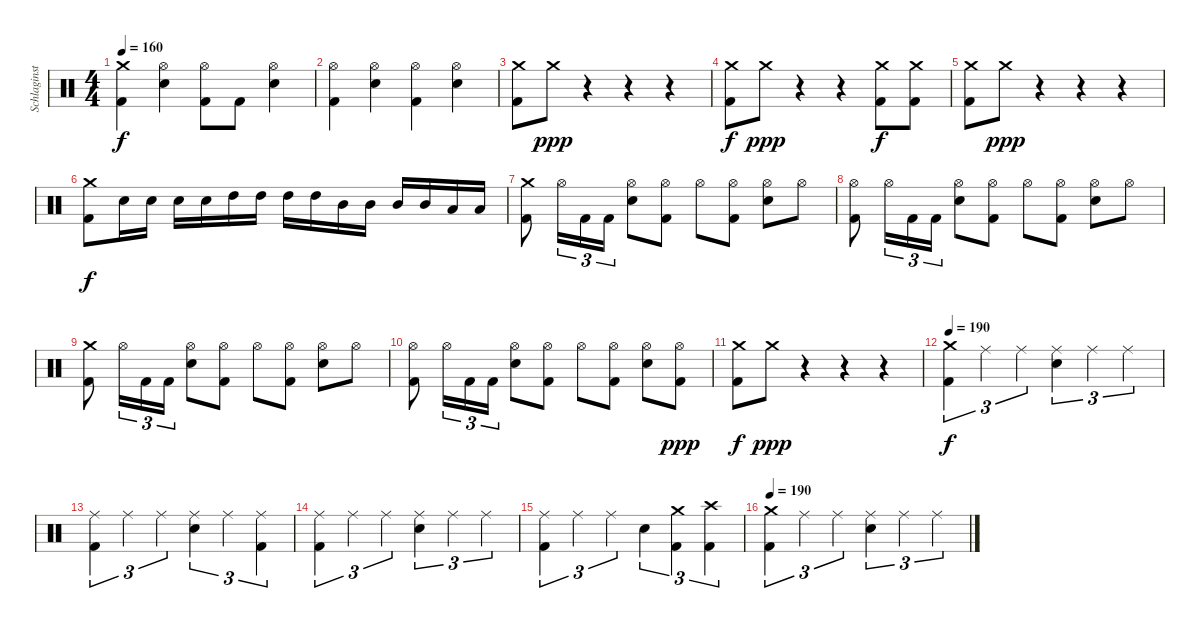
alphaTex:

\track ("Schlaginstrumente - Auswahl" "Schlaginst") {instrument percussion}
\staff {score}
\articulation defaults
\ts (4 4)
\tempo 160
\clef neutral
\ks c
("Crash medium (hit)" "Kick (hit) 2").4{dy f} ("Hi-Hat (open)" "Electric Snare (hit)").4 ("Hi-Hat (open)" "Kick (hit) 2").8 "Kick (hit) 2".8 ("Hi-Hat (open)" "Electric Snare (hit)").4 |
("Hi-Hat (open)" "Kick (hit) 2").4 ("Hi-Hat (open)" "Electric Snare (hit)").4 ("Hi-Hat (open)" "Kick (hit) 2").4 ("Hi-Hat (open)" "Electric Snare (hit)").4 |
("Crash medium (hit)" "Kick (hit) 2").8 "Crash medium (hit)".8{dy ppp} r.4 r.4 r.4 |
("Crash medium (hit)" "Kick (hit) 2").8{dy f} "Crash medium (hit)".8{dy ppp} r.4 r.4 ("Crash medium (hit)" "Kick (hit) 2").8{dy f} ("Crash medium (hit)" "Kick (hit) 2").8 |
("Crash medium (hit)" "Kick (hit) 2").8 "Crash medium (hit)".8{dy ppp} r.4 r.4 r.4 |
("Crash medium (hit)" "Kick (hit) 2").8{dy f} "Electric Snare (hit)".16 "Electric Snare (hit)".16 "Electric Snare (hit)".16 "Electric Snare (hit)".16 "High Tom (hit)".16 "High Tom (hit)".16 "High Tom (hit)".16 "High Tom (hit)".16 "Mid Tom (hit)".16 "Mid Tom (hit)".16 "Mid Tom (hit)".16 "Mid Tom (hit)".16 "Low Tom (hit)".16 "Low Tom (hit)".16 |
("Crash medium (hit)" "Kick (hit) 2").8 "Hi-Hat (open)".16{tu (3 2)} "Kick (hit) 2".16{tu (3 2)} "Kick (hit) 2".16{tu (3 2)} ("Hi-Hat (open)" "Electric Snare (hit)").8 ("Hi-Hat (open)" "Kick (hit) 2").8 "Hi-Hat (open)".8 ("Hi-Hat (open)" "Kick (hit) 2").8 ("Hi-Hat (open)" "Electric Snare (hit)").8 "Hi-Hat (open)".8 |
("Hi-Hat (open)" "Kick (hit) 2").8 "Hi-Hat (open)".16{tu (3 2)} "Kick (hit) 2".16{tu (3 2)} "Kick (hit) 2".16{tu (3 2)} ("Hi-Hat (open)" "Electric Snare (hit)").8 ("Hi-Hat (open)" "Kick (hit) 2").8 "Hi-Hat (open)".8 ("Hi-Hat (open)" "Kick (hit) 2").8 ("Hi-Hat (open)" "Electric Snare (hit)").8 "Hi-Hat (open)".8 |
("Crash medium (hit)" "Kick (hit) 2").8 "Hi-Hat (open)".16{tu (3 2)} "Kick (hit) 2".16{tu (3 2)} "Kick (hit) 2".16{tu (3 2)} ("Hi-Hat (open)" "Electric Snare (hit)").8 ("Hi-Hat (open)" "Kick (hit) 2").8 "Hi-Hat (open)".8 ("Hi-Hat (open)" "Kick (hit) 2").8 ("Hi-Hat (open)" "Electric Snare (hit)").8 "Hi-Hat (open)".8 |
("Hi-Hat (open)" "Kick (hit) 2").8 "Hi-Hat (open)".16{tu (3 2)} "Kick (hit) 2".16{tu (3 2)} "Kick (hit) 2".16{tu (3 2)} ("Hi-Hat (open)" "Electric Snare (hit)").8 ("Hi-Hat (open)" "Kick (hit) 2").8 "Hi-Hat (open)".8 ("Hi-Hat (open)" "Kick (hit) 2").8 ("Hi-Hat (open)" "Electric Snare (hit)").8 ("Hi-Hat (open)" "Kick (hit) 2").8{dy ppp} |
("Crash medium (hit)" "Kick (hit) 2").8{dy f} "Crash medium (hit)".8{dy ppp} r.4 r.4 r.4 |
\tempo 190
("Crash medium (hit)" "Kick (hit) 2").4{tu (3 2) dy f} "Ride (middle)".4{tu (3 2)} "Ride (middle)".4{tu (3 2)} ("Ride (middle)" "Electric Snare (hit)").4{tu (3 2)} "Ride (middle)".4{tu (3 2)} "Ride (middle)".4{tu (3 2)} |
("Ride (middle)" "Kick (hit) 2").4{tu (3 2)} "Ride (middle)".4{tu (3 2)} "Ride (middle)".4{tu (3 2)} ("Ride (middle)" "Electric Snare (hit)").4{tu (3 2)} "Ride (middle)".4{tu (3 2)} ("Ride (middle)" "Kick (hit) 2").4{tu (3 2)} |
("Ride (middle)" "Kick (hit) 2").4{tu (3 2)} "Ride (middle)".4{tu (3 2)} "Ride (middle)".4{tu (3 2)} ("Ride (middle)" "Electric Snare (hit)").4{tu (3 2)} "Ride (middle)".4{tu (3 2)} "Ride (middle)".4{tu (3 2)} |
("Ride (middle)" "Kick (hit) 2").4{tu (3 2)} "Ride (middle)".4{tu (3 2)} "Ride (middle)".4{tu (3 2)} "Electric Snare (hit)".4{tu (3 2)} ("Crash medium (hit)" "Kick (hit) 2").4{tu (3 2)} ("Crash high (hit)" "Kick (hit) 2").4{tu (3 2)} |
\tempo 190
("Crash medium (hit)" "Kick (hit) 2").4{tu (3 2)} "Ride (middle)".4{tu (3 2)} "Ride (middle)".4{tu (3 2)} ("Ride (middle)" "Electric Snare (hit)").4{tu (3 2)} "Ride (middle)".4{tu (3 2)} "Ride (middle)".4{tu (3 2)}
